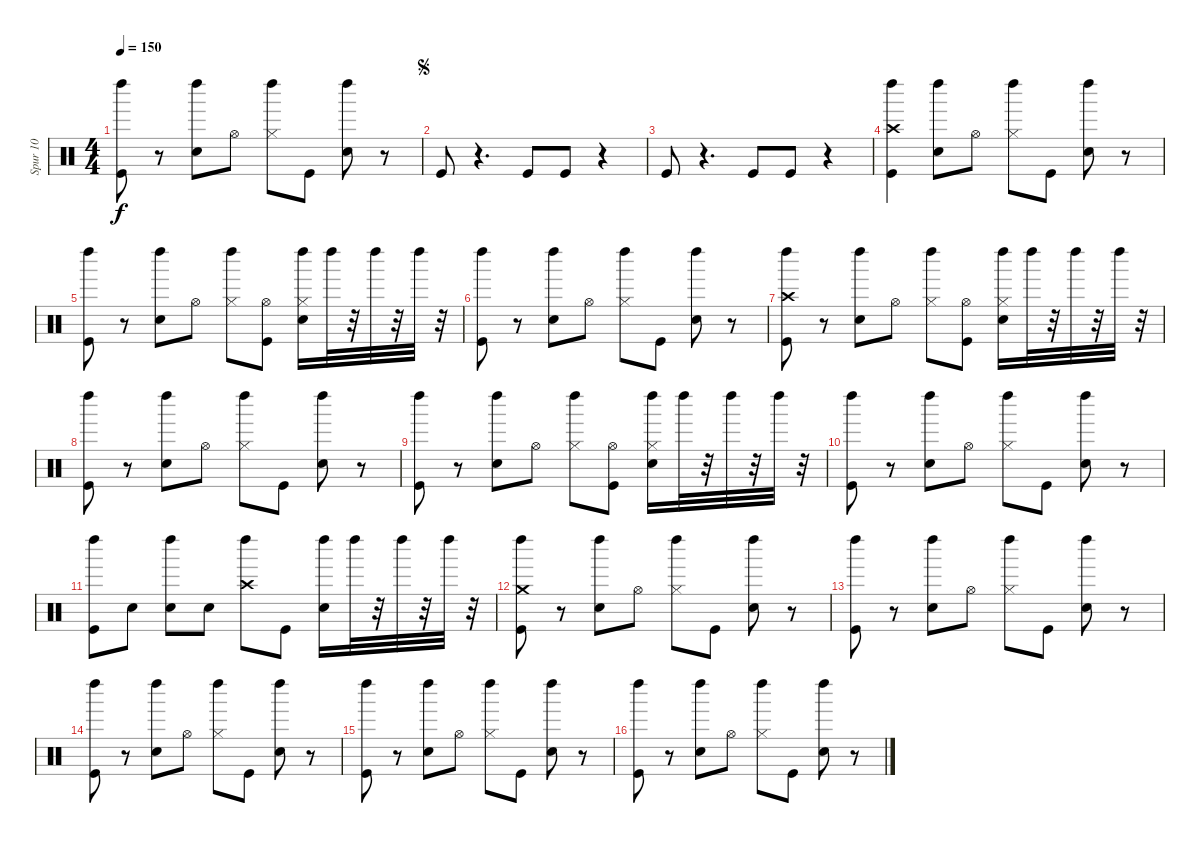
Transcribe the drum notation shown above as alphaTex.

\track ("Spur 10" "Spur 10") {instrument percussion}
\staff {score}
\articulation defaults
\ts (4 4)
\tempo 150
\clef neutral
\ks c
("Kick (hit)" "Left Maraca (hit)").8{dy f} r.8 ("Snare (hit) 2" "Left Maraca (hit)").8 "Hi-Hat (open)".8 ("Hi-Hat (closed)" "Left Maraca (hit)").8 "Kick (hit)".8 ("Snare (hit) 2" "Left Maraca (hit)").8 r.8 |
\jump segno "Kick (hit)".8
r.4{d} "Kick (hit)".8 "Kick (hit)".8 r.4 |
"Kick (hit)".8 r.4{d} "Kick (hit)".8 "Kick (hit)".8 r.4 |
("Crash high (hit)" "Kick (hit)" "Left Maraca (hit)").4 ("Snare (hit) 2" "Left Maraca (hit)").8 "Hi-Hat (open)".8 ("Hi-Hat (closed)" "Left Maraca (hit)").8 "Kick (hit)".8 ("Snare (hit) 2" "Left Maraca (hit)").8 r.8 |
("Kick (hit)" "Left Maraca (hit)").8 r.8 ("Snare (hit) 2" "Left Maraca (hit)").8 "Hi-Hat (open)".8 ("Hi-Hat (closed)" "Left Maraca (hit)").8 ("Hi-Hat (open)" "Kick (hit)").8 ("Hi-Hat (closed)" "Snare (hit) 2" "Left Maraca (hit)").16 "Left Maraca (hit)".32 r.32 "Left Maraca (hit)".32 r.32 "Left Maraca (hit)".32 r.32 |
("Kick (hit)" "Left Maraca (hit)").8 r.8 ("Snare (hit) 2" "Left Maraca (hit)").8 "Hi-Hat (open)".8 ("Hi-Hat (closed)" "Left Maraca (hit)").8 "Kick (hit)".8 ("Snare (hit) 2" "Left Maraca (hit)").8 r.8 |
("Crash high (hit)" "Kick (hit)" "Left Maraca (hit)").8 r.8 ("Snare (hit) 2" "Left Maraca (hit)").8 "Hi-Hat (open)".8 ("Hi-Hat (closed)" "Left Maraca (hit)").8 ("Hi-Hat (open)" "Kick (hit)").8 ("Hi-Hat (closed)" "Snare (hit) 2" "Left Maraca (hit)").16 "Left Maraca (hit)".32 r.32 "Left Maraca (hit)".32 r.32 "Left Maraca (hit)".32 r.32 |
("Kick (hit)" "Left Maraca (hit)").8 r.8 ("Snare (hit) 2" "Left Maraca (hit)").8 "Hi-Hat (open)".8 ("Hi-Hat (closed)" "Left Maraca (hit)").8 "Kick (hit)".8 ("Snare (hit) 2" "Left Maraca (hit)").8 r.8 |
("Kick (hit)" "Left Maraca (hit)").8 r.8 ("Snare (hit) 2" "Left Maraca (hit)").8 "Hi-Hat (open)".8 ("Hi-Hat (closed)" "Left Maraca (hit)").8 ("Hi-Hat (open)" "Kick (hit)").8 ("Hi-Hat (closed)" "Snare (hit) 2" "Left Maraca (hit)").16 "Left Maraca (hit)".32 r.32 "Left Maraca (hit)".32 r.32 "Left Maraca (hit)".32 r.32 |
("Kick (hit)" "Left Maraca (hit)").8 r.8 ("Snare (hit) 2" "Left Maraca (hit)").8 "Hi-Hat (open)".8 ("Hi-Hat (closed)" "Left Maraca (hit)").8 "Kick (hit)".8 ("Snare (hit) 2" "Left Maraca (hit)").8 r.8 |
("Kick (hit)" "Left Maraca (hit)").8 "Electric Snare (hit)".8 ("Snare (hit) 2" "Left Maraca (hit)").8 "Snare (hit) 2".8 ("Crash high (hit)" "Left Maraca (hit)").8 "Kick (hit)".8 ("Snare (hit) 2" "Left Maraca (hit)").16 "Left Maraca (hit)".32 r.32 "Left Maraca (hit)".32 r.32 "Left Maraca (hit)".32 r.32 |
("Crash medium (hit)" "Kick (hit)" "Left Maraca (hit)").8 r.8 ("Snare (hit) 2" "Left Maraca (hit)").8 "Hi-Hat (open)".8 ("Hi-Hat (closed)" "Left Maraca (hit)").8 "Kick (hit)".8 ("Snare (hit) 2" "Left Maraca (hit)").8 r.8 |
("Kick (hit)" "Left Maraca (hit)").8 r.8 ("Snare (hit) 2" "Left Maraca (hit)").8 "Hi-Hat (open)".8 ("Hi-Hat (closed)" "Left Maraca (hit)").8 "Kick (hit)".8 ("Snare (hit) 2" "Left Maraca (hit)").8 r.8 |
("Kick (hit)" "Left Maraca (hit)").8 r.8 ("Snare (hit) 2" "Left Maraca (hit)").8 "Hi-Hat (open)".8 ("Hi-Hat (closed)" "Left Maraca (hit)").8 "Kick (hit)".8 ("Snare (hit) 2" "Left Maraca (hit)").8 r.8 |
("Kick (hit)" "Left Maraca (hit)").8 r.8 ("Snare (hit) 2" "Left Maraca (hit)").8 "Hi-Hat (open)".8 ("Hi-Hat (closed)" "Left Maraca (hit)").8 "Kick (hit)".8 ("Snare (hit) 2" "Left Maraca (hit)").8 r.8 |
("Kick (hit)" "Left Maraca (hit)").8 r.8 ("Snare (hit) 2" "Left Maraca (hit)").8 "Hi-Hat (open)".8 ("Hi-Hat (closed)" "Left Maraca (hit)").8 "Kick (hit)".8 ("Snare (hit) 2" "Left Maraca (hit)").8 r.8
